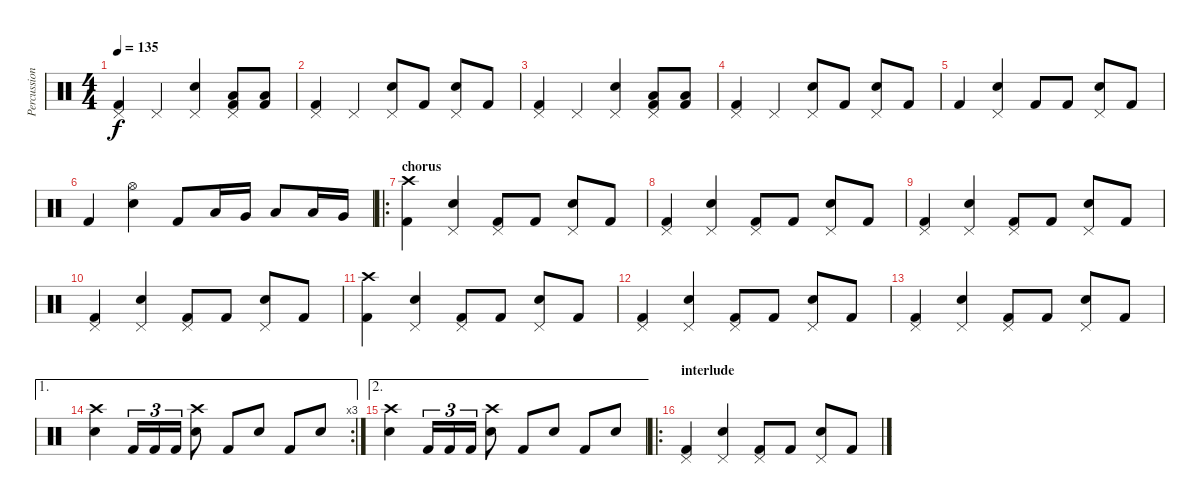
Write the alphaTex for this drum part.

\track ("Percussion" "Percussion") {instrument percussion}
\staff {score}
\articulation defaults
\ts (4 4)
\tempo 135
\clef neutral
\ks c
("Pedal Hi-Hat (hit)" "Kick (hit) 2").4{dy f} "Pedal Hi-Hat (hit)".4 ("Pedal Hi-Hat (hit)" "Electric Snare (hit)").4 ("Pedal Hi-Hat (hit)" "Low Tom (hit)" "Kick (hit) 2").8 ("Low Floor Tom (hit)" "Kick (hit) 2").8 |
("Pedal Hi-Hat (hit)" "Kick (hit) 2").4 "Pedal Hi-Hat (hit)".4 ("Pedal Hi-Hat (hit)" "Electric Snare (hit)").8 "Kick (hit) 2".8 ("Pedal Hi-Hat (hit)" "Electric Snare (hit)").8 "Kick (hit) 2".8 |
("Pedal Hi-Hat (hit)" "Kick (hit) 2").4 "Pedal Hi-Hat (hit)".4 ("Pedal Hi-Hat (hit)" "Electric Snare (hit)").4 ("Pedal Hi-Hat (hit)" "Low Tom (hit)" "Kick (hit) 2").8 ("Low Floor Tom (hit)" "Kick (hit) 2").8 |
("Pedal Hi-Hat (hit)" "Kick (hit) 2").4 "Pedal Hi-Hat (hit)".4 ("Pedal Hi-Hat (hit)" "Electric Snare (hit)").8 "Kick (hit) 2".8 ("Pedal Hi-Hat (hit)" "Electric Snare (hit)").8 "Kick (hit) 2".8 |
"Kick (hit) 2".4 ("Pedal Hi-Hat (hit)" "Electric Snare (hit)").4 "Kick (hit) 2".8 "Kick (hit) 2".8 ("Pedal Hi-Hat (hit)" "Electric Snare (hit)").8 "Kick (hit) 2".8 |
"Kick (hit) 2".4 ("Hi-Hat (open)" "Electric Snare (hit)").4 "Kick (hit) 2".8 "Low Tom (hit)".16 "Very Low Tom (hit)".16 "Low Floor Tom (hit)".8 "Low Tom (hit)".16 "Very Low Tom (hit)".16 |
\ro
\section ("" "chorus")
("Crash high (hit)" "Kick (hit) 2").4 ("Pedal Hi-Hat (hit)" "Electric Snare (hit)").4 ("Pedal Hi-Hat (hit)" "Kick (hit) 2").8 "Kick (hit) 2".8 ("Pedal Hi-Hat (hit)" "Electric Snare (hit)").8 "Kick (hit) 2".8 |
("Pedal Hi-Hat (hit)" "Kick (hit) 2").4 ("Pedal Hi-Hat (hit)" "Electric Snare (hit)").4 ("Pedal Hi-Hat (hit)" "Kick (hit) 2").8 "Kick (hit) 2".8 ("Pedal Hi-Hat (hit)" "Electric Snare (hit)").8 "Kick (hit) 2".8 |
("Pedal Hi-Hat (hit)" "Kick (hit) 2").4 ("Pedal Hi-Hat (hit)" "Electric Snare (hit)").4 ("Pedal Hi-Hat (hit)" "Kick (hit) 2").8 "Kick (hit) 2".8 ("Pedal Hi-Hat (hit)" "Electric Snare (hit)").8 "Kick (hit) 2".8 |
("Pedal Hi-Hat (hit)" "Kick (hit) 2").4 ("Pedal Hi-Hat (hit)" "Electric Snare (hit)").4 ("Pedal Hi-Hat (hit)" "Kick (hit) 2").8 "Kick (hit) 2".8 ("Pedal Hi-Hat (hit)" "Electric Snare (hit)").8 "Kick (hit) 2".8 |
("Crash high (hit)" "Kick (hit) 2").4 ("Pedal Hi-Hat (hit)" "Electric Snare (hit)").4 ("Pedal Hi-Hat (hit)" "Kick (hit) 2").8 "Kick (hit) 2".8 ("Pedal Hi-Hat (hit)" "Electric Snare (hit)").8 "Kick (hit) 2".8 |
("Pedal Hi-Hat (hit)" "Kick (hit) 2").4 ("Pedal Hi-Hat (hit)" "Electric Snare (hit)").4 ("Pedal Hi-Hat (hit)" "Kick (hit) 2").8 "Kick (hit) 2".8 ("Pedal Hi-Hat (hit)" "Electric Snare (hit)").8 "Kick (hit) 2".8 |
("Pedal Hi-Hat (hit)" "Kick (hit) 2").4 ("Pedal Hi-Hat (hit)" "Electric Snare (hit)").4 ("Pedal Hi-Hat (hit)" "Kick (hit) 2").8 "Kick (hit) 2".8 ("Pedal Hi-Hat (hit)" "Electric Snare (hit)").8 "Kick (hit) 2".8 |
\ae 1
\rc 3
("Crash high (hit)" "Electric Snare (hit)").4 "Kick (hit) 2".16{tu (3 2)} "Kick (hit) 2".16{tu (3 2)} "Kick (hit) 2".16{tu (3 2)} ("Crash high (hit)" "Electric Snare (hit)").8 "Kick (hit) 2".8 "Electric Snare (hit)".8 "Kick (hit) 2".8 "Electric Snare (hit)".8 |
\ae 2
("Crash high (hit)" "Electric Snare (hit)").4 "Kick (hit) 2".16{tu (3 2)} "Kick (hit) 2".16{tu (3 2)} "Kick (hit) 2".16{tu (3 2)} ("Crash high (hit)" "Electric Snare (hit)").8 "Kick (hit) 2".8 "Electric Snare (hit)".8 "Kick (hit) 2".8 "Electric Snare (hit)".8 |
\ro
\section ("" "interlude")
("Pedal Hi-Hat (hit)" "Kick (hit) 2").4 ("Pedal Hi-Hat (hit)" "Electric Snare (hit)").4 ("Pedal Hi-Hat (hit)" "Kick (hit) 2").8 "Kick (hit) 2".8 ("Pedal Hi-Hat (hit)" "Electric Snare (hit)").8 "Kick (hit) 2".8
